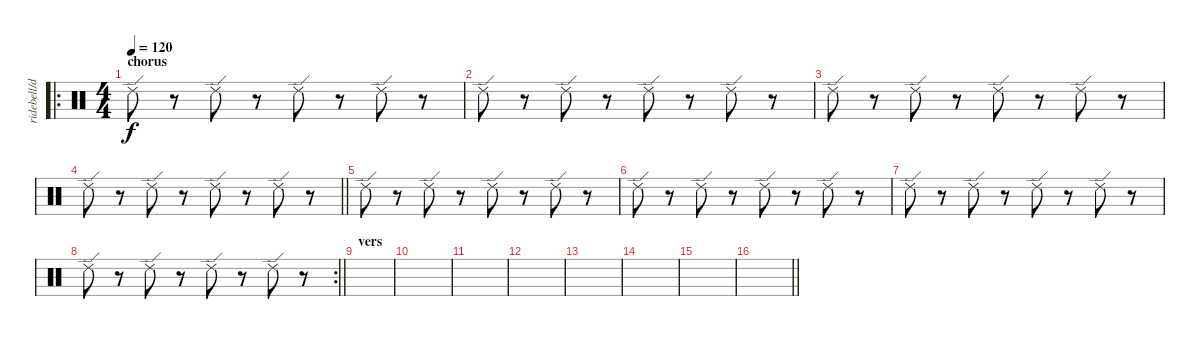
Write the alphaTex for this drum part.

\track ("ridebell/drum" "ridebell/d") {instrument percussion}
\staff {score}
\articulation defaults
\ro
\ts (4 4)
\section ("" "chorus")
\tempo 120
\clef neutral
\ks c "Ride (edge) 2".8{dy f}
r.8 "Ride (edge) 2".8 r.8 "Ride (edge) 2".8 r.8 "Ride (edge) 2".8 r.8 |
"Ride (edge) 2".8 r.8 "Ride (edge) 2".8 r.8 "Ride (edge) 2".8 r.8 "Ride (edge) 2".8 r.8 |
"Ride (edge) 2".8 r.8 "Ride (edge) 2".8 r.8 "Ride (edge) 2".8 r.8 "Ride (edge) 2".8 r.8 |
\barLineRight lightlight "Ride (edge) 2".8
r.8 "Ride (edge) 2".8 r.8 "Ride (edge) 2".8 r.8 "Ride (edge) 2".8 r.8 |
"Ride (edge) 2".8 r.8 "Ride (edge) 2".8 r.8 "Ride (edge) 2".8 r.8 "Ride (edge) 2".8 r.8 |
"Ride (edge) 2".8 r.8 "Ride (edge) 2".8 r.8 "Ride (edge) 2".8 r.8 "Ride (edge) 2".8 r.8 |
"Ride (edge) 2".8 r.8 "Ride (edge) 2".8 r.8 "Ride (edge) 2".8 r.8 "Ride (edge) 2".8 r.8 |
\rc 2
\barLineRight lightlight "Ride (edge) 2".8
r.8 "Ride (edge) 2".8 r.8 "Ride (edge) 2".8 r.8 "Ride (edge) 2".8 r.8 |
\section ("" "vers")
|
|
|
|
|
|
|
\barLineRight lightlight
